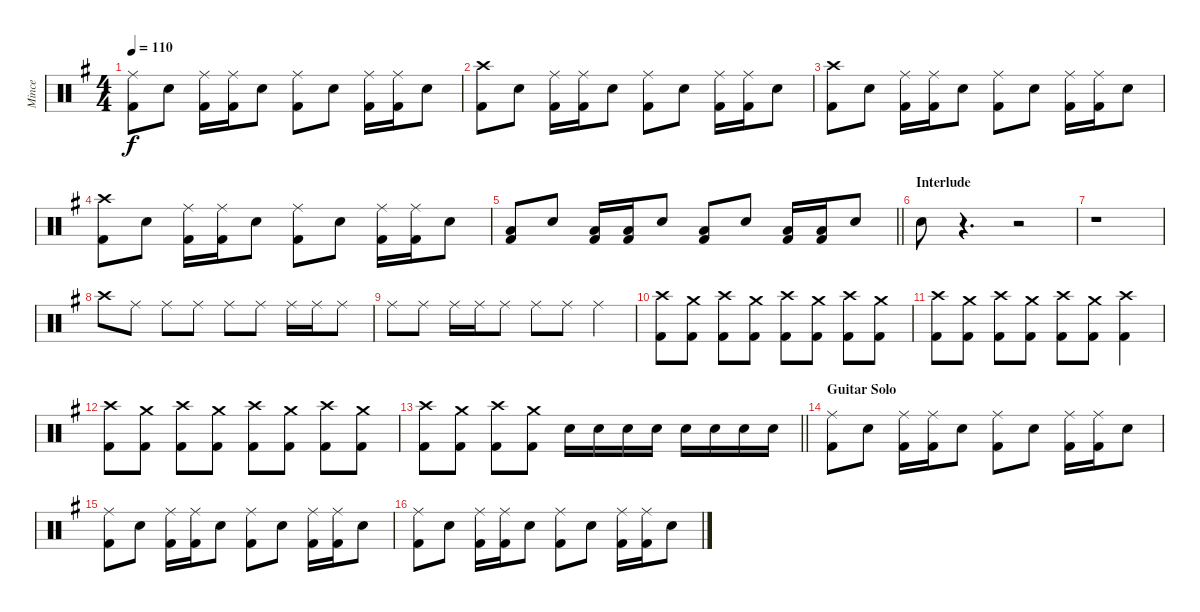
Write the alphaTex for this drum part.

\track ("Mince" "Mince") {instrument percussion}
\staff {score}
\articulation defaults
\ts (4 4)
\tempo 110
\clef neutral
\ks g
("Kick (hit) 2" "Ride (middle)").8{dy f} "Snare (hit) 2".8 ("Kick (hit) 2" "Ride (middle)").16 ("Kick (hit) 2" "Ride (middle)").16 "Snare (hit) 2".8 ("Kick (hit) 2" "Ride (middle)").8 "Snare (hit) 2".8 ("Kick (hit) 2" "Ride (middle)").16 ("Kick (hit) 2" "Ride (middle)").16 "Snare (hit) 2".8 |
("Kick (hit) 2" "Crash high (hit)").8 "Snare (hit) 2".8 ("Kick (hit) 2" "Ride (middle)").16 ("Kick (hit) 2" "Ride (middle)").16 "Snare (hit) 2".8 ("Kick (hit) 2" "Ride (middle)").8 "Snare (hit) 2".8 ("Kick (hit) 2" "Ride (middle)").16 ("Kick (hit) 2" "Ride (middle)").16 "Snare (hit) 2".8 |
("Kick (hit) 2" "Crash high (hit)").8 "Snare (hit) 2".8 ("Kick (hit) 2" "Ride (middle)").16 ("Kick (hit) 2" "Ride (middle)").16 "Snare (hit) 2".8 ("Kick (hit) 2" "Ride (middle)").8 "Snare (hit) 2".8 ("Kick (hit) 2" "Ride (middle)").16 ("Kick (hit) 2" "Ride (middle)").16 "Snare (hit) 2".8 |
("Kick (hit) 2" "Crash high (hit)").8 "Snare (hit) 2".8 ("Kick (hit) 2" "Ride (middle)").16 ("Kick (hit) 2" "Ride (middle)").16 "Snare (hit) 2".8 ("Kick (hit) 2" "Ride (middle)").8 "Snare (hit) 2".8 ("Kick (hit) 2" "Ride (middle)").16 ("Kick (hit) 2" "Ride (middle)").16 "Snare (hit) 2".8 |
\barLineRight lightlight
("Kick (hit) 2" "Low Floor Tom (hit)").8 "Snare (hit) 2".8 ("Kick (hit) 2" "Low Floor Tom (hit)").16 ("Kick (hit) 2" "Low Floor Tom (hit)").16 "Snare (hit) 2".8 ("Kick (hit) 2" "Low Floor Tom (hit)").8 "Snare (hit) 2".8 ("Kick (hit) 2" "Low Floor Tom (hit)").16 ("Kick (hit) 2" "Low Floor Tom (hit)").16 "Snare (hit) 2".8 |
\section ("" "Interlude")
"Snare (hit) 2".8 r.4{d} r.2 |
r.1 |
"Crash high (hit)".8 "Ride (middle)".8 "Ride (middle)".8 "Ride (middle)".8 "Ride (middle)".8 "Ride (middle)".8 "Ride (middle)".16 "Ride (middle)".16 "Ride (middle)".8 |
"Ride (middle)".8 "Ride (middle)".8 "Ride (middle)".16 "Ride (middle)".16 "Ride (middle)".8 "Ride (middle)".8 "Ride (middle)".8 "Ride (middle)".4 |
("Kick (hit) 2" "Crash high (hit)").8 ("Kick (hit) 2" "Crash medium (hit)").8 ("Kick (hit) 2" "Crash high (hit)").8 ("Kick (hit) 2" "Crash medium (hit)").8 ("Kick (hit) 2" "Crash high (hit)").8 ("Kick (hit) 2" "Crash medium (hit)").8 ("Kick (hit) 2" "Crash high (hit)").8 ("Kick (hit) 2" "Crash medium (hit)").8 |
("Kick (hit) 2" "Crash high (hit)").8 ("Kick (hit) 2" "Crash medium (hit)").8 ("Kick (hit) 2" "Crash high (hit)").8 ("Kick (hit) 2" "Crash medium (hit)").8 ("Kick (hit) 2" "Crash high (hit)").8 ("Kick (hit) 2" "Crash medium (hit)").8 ("Kick (hit) 2" "Crash high (hit)").4 |
("Kick (hit) 2" "Crash high (hit)").8 ("Kick (hit) 2" "Crash medium (hit)").8 ("Kick (hit) 2" "Crash high (hit)").8 ("Kick (hit) 2" "Crash medium (hit)").8 ("Kick (hit) 2" "Crash high (hit)").8 ("Kick (hit) 2" "Crash medium (hit)").8 ("Kick (hit) 2" "Crash high (hit)").8 ("Kick (hit) 2" "Crash medium (hit)").8 |
\barLineRight lightlight
("Kick (hit) 2" "Crash high (hit)").8 ("Kick (hit) 2" "Crash medium (hit)").8 ("Kick (hit) 2" "Crash high (hit)").8 ("Kick (hit) 2" "Crash medium (hit)").8 "Snare (hit) 2".16 "Snare (hit) 2".16 "Snare (hit) 2".16 "Snare (hit) 2".16 "Snare (hit) 2".16 "Snare (hit) 2".16 "Snare (hit) 2".16 "Snare (hit) 2".16 |
\section ("" "Guitar Solo")
("Kick (hit) 2" "Ride (middle)").8 "Snare (hit) 2".8 ("Kick (hit) 2" "Ride (middle)").16 ("Kick (hit) 2" "Ride (middle)").16 "Snare (hit) 2".8 ("Kick (hit) 2" "Ride (middle)").8 "Snare (hit) 2".8 ("Kick (hit) 2" "Ride (middle)").16 ("Kick (hit) 2" "Ride (middle)").16 "Snare (hit) 2".8 |
("Kick (hit) 2" "Ride (middle)").8 "Snare (hit) 2".8 ("Kick (hit) 2" "Ride (middle)").16 ("Kick (hit) 2" "Ride (middle)").16 "Snare (hit) 2".8 ("Kick (hit) 2" "Ride (middle)").8 "Snare (hit) 2".8 ("Kick (hit) 2" "Ride (middle)").16 ("Kick (hit) 2" "Ride (middle)").16 "Snare (hit) 2".8 |
("Kick (hit) 2" "Ride (middle)").8 "Snare (hit) 2".8 ("Kick (hit) 2" "Ride (middle)").16 ("Kick (hit) 2" "Ride (middle)").16 "Snare (hit) 2".8 ("Kick (hit) 2" "Ride (middle)").8 "Snare (hit) 2".8 ("Kick (hit) 2" "Ride (middle)").16 ("Kick (hit) 2" "Ride (middle)").16 "Snare (hit) 2".8
